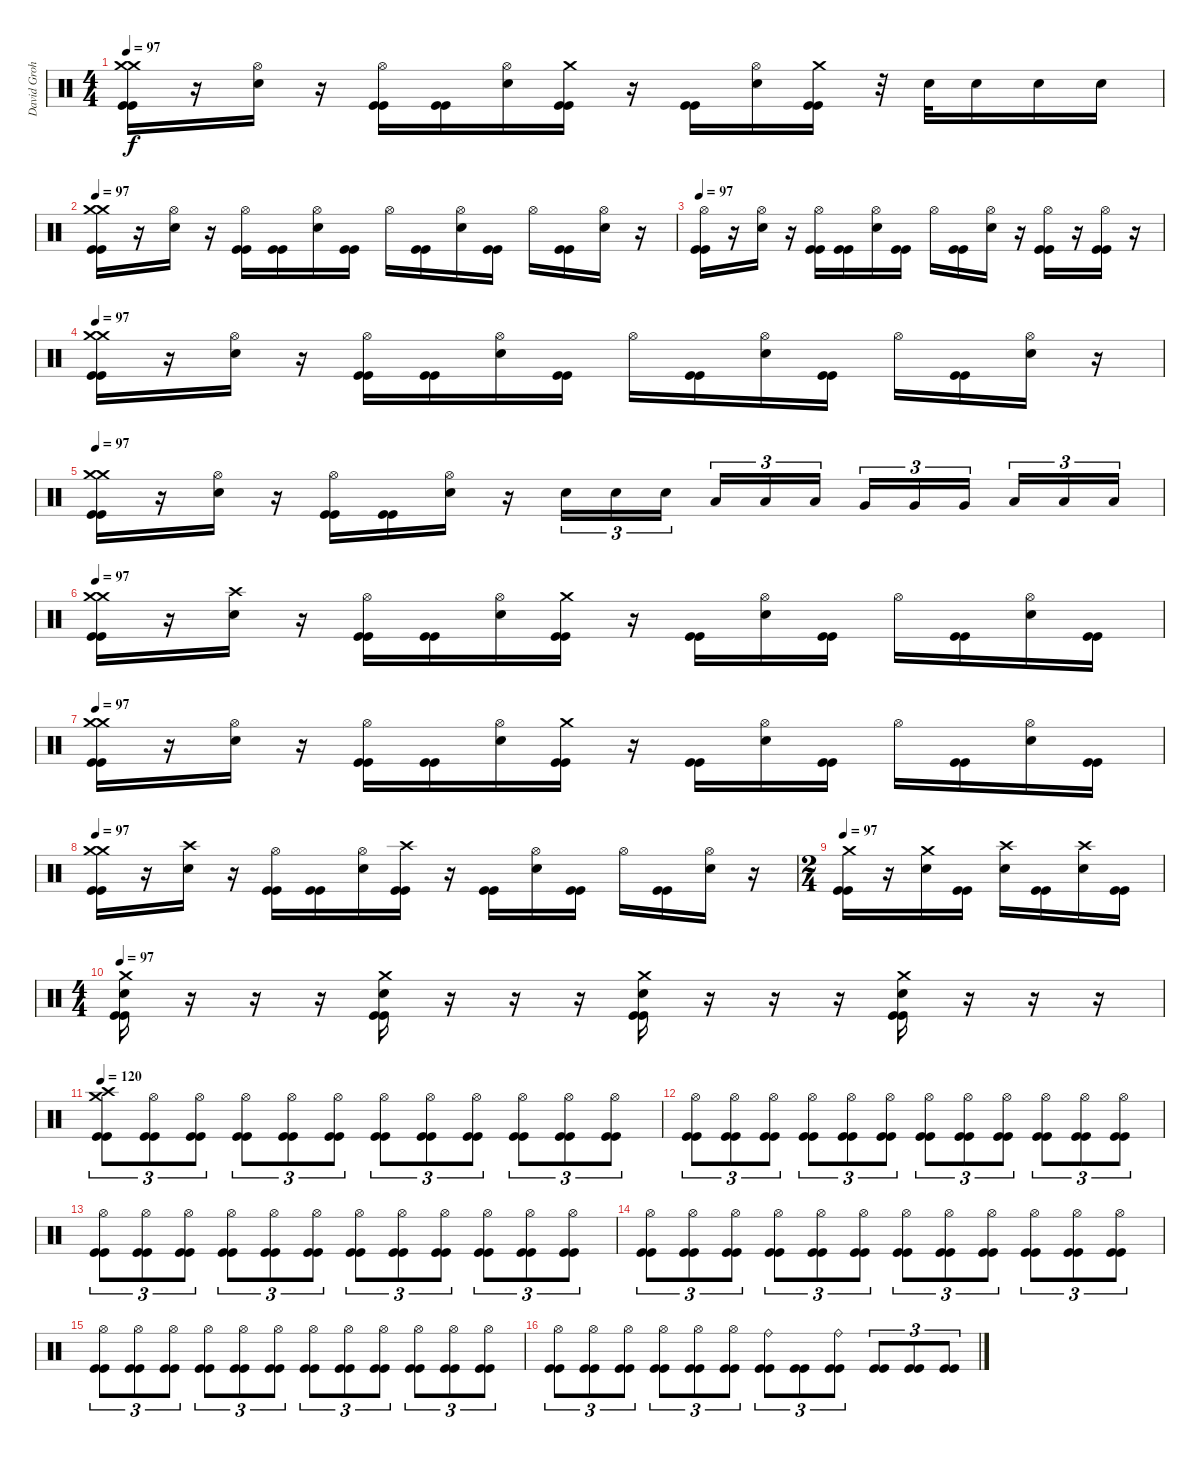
\track ("David Grohl/Alfredo Ortiz" "David Groh") {instrument percussion}
\staff {score}
\articulation defaults
\ts (4 4)
\tempo 97
\clef neutral
\ks c
("Crash medium (hit)" "Crash medium (hit)" "Kick (hit)" "Kick (hit)").16{dy f} r.16 ("Hi-Hat (open)" "Snare (hit) 2").16 r.16 ("Hi-Hat (open)" "Kick (hit)" "Kick (hit)").16 ("Kick (hit)" "Kick (hit)").16 ("Hi-Hat (open)" "Snare (hit) 2").16 ("Crash medium (hit)" "Kick (hit)" "Kick (hit)").16 r.16 ("Kick (hit)" "Kick (hit)").16 ("Hi-Hat (open)" "Snare (hit) 2").16 ("Crash medium (hit)" "Kick (hit)" "Kick (hit)").16 r.32 "Snare (hit) 2".32 "Snare (hit) 2".16 "Snare (hit) 2".16 "Snare (hit) 2".16 |
\tempo 97
("Crash medium (hit)" "Crash medium (hit)" "Kick (hit)" "Kick (hit)").16 r.16 ("Hi-Hat (open)" "Snare (hit) 2").16 r.16 ("Hi-Hat (open)" "Kick (hit)" "Kick (hit)").16 ("Kick (hit)" "Kick (hit)").16 ("Hi-Hat (open)" "Snare (hit) 2").16 ("Kick (hit)" "Kick (hit)").16 "Hi-Hat (open)".16 ("Kick (hit)" "Kick (hit)").16 ("Hi-Hat (open)" "Snare (hit) 2").16 ("Kick (hit)" "Kick (hit)").16 "Hi-Hat (open)".16 ("Kick (hit)" "Kick (hit)").16 ("Hi-Hat (open)" "Snare (hit) 2").16 r.16 |
\tempo 97
("Hi-Hat (open)" "Kick (hit)" "Kick (hit)").16 r.16 ("Hi-Hat (open)" "Snare (hit) 2").16 r.16 ("Hi-Hat (open)" "Kick (hit)" "Kick (hit)").16 ("Kick (hit)" "Kick (hit)").16 ("Hi-Hat (open)" "Snare (hit) 2").16 ("Kick (hit)" "Kick (hit)").16 "Hi-Hat (open)".16 ("Kick (hit)" "Kick (hit)").16 ("Hi-Hat (open)" "Snare (hit) 2").16 r.16 ("Hi-Hat (open)" "Kick (hit)" "Kick (hit)").16 r.16 ("Hi-Hat (open)" "Kick (hit)" "Kick (hit)").16 r.16 |
\tempo 97
("Crash medium (hit)" "Crash medium (hit)" "Kick (hit)" "Kick (hit)").16 r.16 ("Hi-Hat (open)" "Snare (hit) 2").16 r.16 ("Hi-Hat (open)" "Kick (hit)" "Kick (hit)").16 ("Kick (hit)" "Kick (hit)").16 ("Hi-Hat (open)" "Snare (hit) 2").16 ("Kick (hit)" "Kick (hit)").16 "Hi-Hat (open)".16 ("Kick (hit)" "Kick (hit)").16 ("Hi-Hat (open)" "Snare (hit) 2").16 ("Kick (hit)" "Kick (hit)").16 "Hi-Hat (open)".16 ("Kick (hit)" "Kick (hit)").16 ("Hi-Hat (open)" "Snare (hit) 2").16 r.16 |
\tempo 97
("Crash medium (hit)" "Crash medium (hit)" "Kick (hit)" "Kick (hit)").16 r.16 ("Hi-Hat (open)" "Snare (hit) 2").16 r.16 ("Hi-Hat (open)" "Kick (hit)" "Kick (hit)").16 ("Kick (hit)" "Kick (hit)").16 ("Hi-Hat (open)" "Snare (hit) 2").16 r.16 "Snare (hit) 2".16{tu (3 2)} "Snare (hit) 2".16{tu (3 2)} "Snare (hit) 2".16{tu (3 2)} "Low Tom (hit)".16{tu (3 2)} "Low Tom (hit)".16{tu (3 2)} "Low Tom (hit)".16{tu (3 2)} "Very Low Tom (hit)".16{tu (3 2)} "Very Low Tom (hit)".16{tu (3 2)} "Very Low Tom (hit)".16{tu (3 2)} "Low Floor Tom (hit)".16{tu (3 2)} "Low Floor Tom (hit)".16{tu (3 2)} "Low Floor Tom (hit)".16{tu (3 2)} |
\tempo 97
("Crash medium (hit)" "Crash medium (hit)" "Kick (hit)" "Kick (hit)").16 r.16 ("Crash high (hit)" "Snare (hit) 2").16 r.16 ("Hi-Hat (open)" "Kick (hit)" "Kick (hit)").16 ("Kick (hit)" "Kick (hit)").16 ("Hi-Hat (open)" "Snare (hit) 2").16 ("Crash medium (hit)" "Kick (hit)" "Kick (hit)").16 r.16 ("Kick (hit)" "Kick (hit)").16 ("Hi-Hat (open)" "Snare (hit) 2").16 ("Kick (hit)" "Kick (hit)").16 "Hi-Hat (open)".16 ("Kick (hit)" "Kick (hit)").16 ("Hi-Hat (open)" "Snare (hit) 2").16 ("Kick (hit)" "Kick (hit)").16 |
\tempo 97
("Crash medium (hit)" "Crash medium (hit)" "Kick (hit)" "Kick (hit)").16 r.16 ("Hi-Hat (open)" "Snare (hit) 2").16 r.16 ("Hi-Hat (open)" "Kick (hit)" "Kick (hit)").16 ("Kick (hit)" "Kick (hit)").16 ("Hi-Hat (open)" "Snare (hit) 2").16 ("Crash medium (hit)" "Kick (hit)" "Kick (hit)").16 r.16 ("Kick (hit)" "Kick (hit)").16 ("Hi-Hat (open)" "Snare (hit) 2").16 ("Kick (hit)" "Kick (hit)").16 "Hi-Hat (open)".16 ("Kick (hit)" "Kick (hit)").16 ("Hi-Hat (open)" "Snare (hit) 2").16 ("Kick (hit)" "Kick (hit)").16 |
\tempo 97
("Crash medium (hit)" "Crash medium (hit)" "Kick (hit)" "Kick (hit)").16 r.16 ("Crash high (hit)" "Snare (hit) 2").16 r.16 ("Hi-Hat (open)" "Kick (hit)" "Kick (hit)").16 ("Kick (hit)" "Kick (hit)").16 ("Hi-Hat (open)" "Snare (hit) 2").16 ("Crash high (hit)" "Kick (hit)" "Kick (hit)").16 r.16 ("Kick (hit)" "Kick (hit)").16 ("Hi-Hat (open)" "Snare (hit) 2").16 ("Kick (hit)" "Kick (hit)").16 "Hi-Hat (open)".16 ("Kick (hit)" "Kick (hit)").16 ("Hi-Hat (open)" "Snare (hit) 2").16 r.16 |
\ts (2 4)
\tempo 97
("Crash medium (hit)" "Kick (hit)" "Kick (hit)").16 r.16 ("Crash medium (hit)" "Snare (hit) 2").16 ("Kick (hit)" "Kick (hit)").16 ("Crash high (hit)" "Snare (hit) 2").16 ("Kick (hit)" "Kick (hit)").16 ("Crash high (hit)" "Snare (hit) 2").16 ("Kick (hit)" "Kick (hit)").16 |
\ts (4 4)
\tempo 97
("Crash medium (hit)" "Snare (hit) 2" "Kick (hit)" "Kick (hit)").16 r.16 r.16 r.16 ("Crash medium (hit)" "Snare (hit) 2" "Kick (hit)" "Kick (hit)").16 r.16 r.16 r.16 ("Crash medium (hit)" "Snare (hit) 2" "Kick (hit)" "Kick (hit)").16 r.16 r.16 r.16 ("Crash medium (hit)" "Snare (hit) 2" "Kick (hit)" "Kick (hit)").16 r.16 r.16 r.16 |
\tempo 120
("Crash medium (hit)" "Crash high (hit)" "Kick (hit)" "Kick (hit)").8{tu (3 2)} ("Hi-Hat (open)" "Kick (hit)" "Kick (hit)").8{tu (3 2)} ("Hi-Hat (open)" "Kick (hit)" "Kick (hit)").8{tu (3 2)} ("Hi-Hat (open)" "Kick (hit)" "Kick (hit)").8{tu (3 2)} ("Hi-Hat (open)" "Kick (hit)" "Kick (hit)").8{tu (3 2)} ("Hi-Hat (open)" "Kick (hit)" "Kick (hit)").8{tu (3 2)} ("Hi-Hat (open)" "Kick (hit)" "Kick (hit)").8{tu (3 2)} ("Hi-Hat (open)" "Kick (hit)" "Kick (hit)").8{tu (3 2)} ("Hi-Hat (open)" "Kick (hit)" "Kick (hit)").8{tu (3 2)} ("Hi-Hat (open)" "Kick (hit)" "Kick (hit)").8{tu (3 2)} ("Hi-Hat (open)" "Kick (hit)" "Kick (hit)").8{tu (3 2)} ("Hi-Hat (open)" "Kick (hit)" "Kick (hit)").8{tu (3 2)} |
("Hi-Hat (open)" "Kick (hit)" "Kick (hit)").8{tu (3 2)} ("Hi-Hat (open)" "Kick (hit)" "Kick (hit)").8{tu (3 2)} ("Hi-Hat (open)" "Kick (hit)" "Kick (hit)").8{tu (3 2)} ("Hi-Hat (open)" "Kick (hit)" "Kick (hit)").8{tu (3 2)} ("Hi-Hat (open)" "Kick (hit)" "Kick (hit)").8{tu (3 2)} ("Hi-Hat (open)" "Kick (hit)" "Kick (hit)").8{tu (3 2)} ("Hi-Hat (open)" "Kick (hit)" "Kick (hit)").8{tu (3 2)} ("Hi-Hat (open)" "Kick (hit)" "Kick (hit)").8{tu (3 2)} ("Hi-Hat (open)" "Kick (hit)" "Kick (hit)").8{tu (3 2)} ("Hi-Hat (open)" "Kick (hit)" "Kick (hit)").8{tu (3 2)} ("Hi-Hat (open)" "Kick (hit)" "Kick (hit)").8{tu (3 2)} ("Hi-Hat (open)" "Kick (hit)" "Kick (hit)").8{tu (3 2)} |
("Hi-Hat (open)" "Kick (hit)" "Kick (hit)").8{tu (3 2)} ("Hi-Hat (open)" "Kick (hit)" "Kick (hit)").8{tu (3 2)} ("Hi-Hat (open)" "Kick (hit)" "Kick (hit)").8{tu (3 2)} ("Hi-Hat (open)" "Kick (hit)" "Kick (hit)").8{tu (3 2)} ("Hi-Hat (open)" "Kick (hit)" "Kick (hit)").8{tu (3 2)} ("Hi-Hat (open)" "Kick (hit)" "Kick (hit)").8{tu (3 2)} ("Hi-Hat (open)" "Kick (hit)" "Kick (hit)").8{tu (3 2)} ("Hi-Hat (open)" "Kick (hit)" "Kick (hit)").8{tu (3 2)} ("Hi-Hat (open)" "Kick (hit)" "Kick (hit)").8{tu (3 2)} ("Hi-Hat (open)" "Kick (hit)" "Kick (hit)").8{tu (3 2)} ("Hi-Hat (open)" "Kick (hit)" "Kick (hit)").8{tu (3 2)} ("Hi-Hat (open)" "Kick (hit)" "Kick (hit)").8{tu (3 2)} |
("Hi-Hat (open)" "Kick (hit)" "Kick (hit)").8{tu (3 2)} ("Hi-Hat (open)" "Kick (hit)" "Kick (hit)").8{tu (3 2)} ("Hi-Hat (open)" "Kick (hit)" "Kick (hit)").8{tu (3 2)} ("Hi-Hat (open)" "Kick (hit)" "Kick (hit)").8{tu (3 2)} ("Hi-Hat (open)" "Kick (hit)" "Kick (hit)").8{tu (3 2)} ("Hi-Hat (open)" "Kick (hit)" "Kick (hit)").8{tu (3 2)} ("Hi-Hat (open)" "Kick (hit)" "Kick (hit)").8{tu (3 2)} ("Hi-Hat (open)" "Kick (hit)" "Kick (hit)").8{tu (3 2)} ("Hi-Hat (open)" "Kick (hit)" "Kick (hit)").8{tu (3 2)} ("Hi-Hat (open)" "Kick (hit)" "Kick (hit)").8{tu (3 2)} ("Hi-Hat (open)" "Kick (hit)" "Kick (hit)").8{tu (3 2)} ("Hi-Hat (open)" "Kick (hit)" "Kick (hit)").8{tu (3 2)} |
("Hi-Hat (open)" "Kick (hit)" "Kick (hit)").8{tu (3 2)} ("Hi-Hat (open)" "Kick (hit)" "Kick (hit)").8{tu (3 2)} ("Hi-Hat (open)" "Kick (hit)" "Kick (hit)").8{tu (3 2)} ("Hi-Hat (open)" "Kick (hit)" "Kick (hit)").8{tu (3 2)} ("Hi-Hat (open)" "Kick (hit)" "Kick (hit)").8{tu (3 2)} ("Hi-Hat (open)" "Kick (hit)" "Kick (hit)").8{tu (3 2)} ("Hi-Hat (open)" "Kick (hit)" "Kick (hit)").8{tu (3 2)} ("Hi-Hat (open)" "Kick (hit)" "Kick (hit)").8{tu (3 2)} ("Hi-Hat (open)" "Kick (hit)" "Kick (hit)").8{tu (3 2)} ("Hi-Hat (open)" "Kick (hit)" "Kick (hit)").8{tu (3 2)} ("Hi-Hat (open)" "Kick (hit)" "Kick (hit)").8{tu (3 2)} ("Hi-Hat (open)" "Kick (hit)" "Kick (hit)").8{tu (3 2)} |
("Hi-Hat (open)" "Kick (hit)" "Kick (hit)").8{tu (3 2)} ("Hi-Hat (open)" "Kick (hit)" "Kick (hit)").8{tu (3 2)} ("Hi-Hat (open)" "Kick (hit)" "Kick (hit)").8{tu (3 2)} ("Hi-Hat (open)" "Kick (hit)" "Kick (hit)").8{tu (3 2)} ("Hi-Hat (open)" "Kick (hit)" "Kick (hit)").8{tu (3 2)} ("Hi-Hat (open)" "Kick (hit)" "Kick (hit)").8{tu (3 2)} ("Ride (bell)" "Kick (hit)" "Kick (hit)").8{tu (3 2)} ("Kick (hit)" "Kick (hit)").8{tu (3 2)} ("Ride (bell)" "Kick (hit)" "Kick (hit)").8{tu (3 2)} ("Kick (hit)" "Kick (hit)").8{tu (3 2)} ("Kick (hit)" "Kick (hit)").8{tu (3 2)} ("Kick (hit)" "Kick (hit)").8{tu (3 2)}
